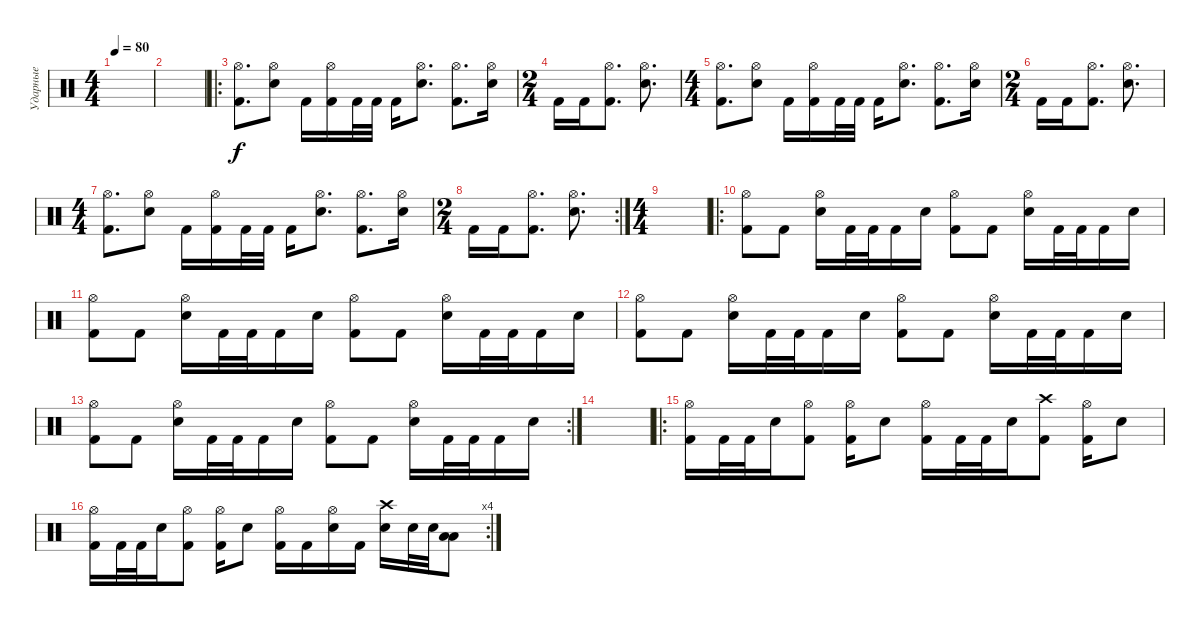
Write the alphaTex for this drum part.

\track ("Ударные" "Ударные") {instrument percussion}
\staff {score}
\articulation defaults
\ts (4 4)
\tempo 80
\clef neutral
\ks c
|
|
\ro
("Hi-Hat (open)" "Kick (hit) 2").8{d} ("Hi-Hat (open)" "Electric Snare (hit)").8 "Kick (hit) 2".16 ("Hi-Hat (open)" "Kick (hit) 2").16 "Kick (hit) 2".32 "Kick (hit) 2".32 "Kick (hit) 2".16 ("Hi-Hat (open)" "Electric Snare (hit)").8{d} ("Hi-Hat (open)" "Kick (hit) 2").8{d} ("Hi-Hat (open)" "Electric Snare (hit)").16 |
\ts (2 4)
"Kick (hit) 2".16 "Kick (hit) 2".16 ("Hi-Hat (open)" "Kick (hit) 2").8{d} ("Hi-Hat (open)" "Electric Snare (hit)").8{d} |
\ts (4 4)
("Hi-Hat (open)" "Kick (hit) 2").8{d} ("Hi-Hat (open)" "Electric Snare (hit)").8 "Kick (hit) 2".16 ("Hi-Hat (open)" "Kick (hit) 2").16 "Kick (hit) 2".32 "Kick (hit) 2".32 "Kick (hit) 2".16 ("Hi-Hat (open)" "Electric Snare (hit)").8{d} ("Hi-Hat (open)" "Kick (hit) 2").8{d} ("Hi-Hat (open)" "Electric Snare (hit)").16 |
\ts (2 4)
"Kick (hit) 2".16 "Kick (hit) 2".16 ("Hi-Hat (open)" "Kick (hit) 2").8{d} ("Hi-Hat (open)" "Electric Snare (hit)").8{d} |
\ts (4 4)
("Hi-Hat (open)" "Kick (hit) 2").8{d} ("Hi-Hat (open)" "Electric Snare (hit)").8 "Kick (hit) 2".16 ("Hi-Hat (open)" "Kick (hit) 2").16 "Kick (hit) 2".32 "Kick (hit) 2".32 "Kick (hit) 2".16 ("Hi-Hat (open)" "Electric Snare (hit)").8{d} ("Hi-Hat (open)" "Kick (hit) 2").8{d} ("Hi-Hat (open)" "Electric Snare (hit)").16 |
\rc 2
\ts (2 4)
"Kick (hit) 2".16 "Kick (hit) 2".16 ("Hi-Hat (open)" "Kick (hit) 2").8{d} ("Hi-Hat (open)" "Electric Snare (hit)").8{d} |
\ts (4 4)
|
\ro
("Hi-Hat (open)" "Kick (hit) 2").8 "Kick (hit) 2".8 ("Hi-Hat (open)" "Electric Snare (hit)").16 "Kick (hit) 2".32 "Kick (hit) 2".32 "Kick (hit) 2".16 "Electric Snare (hit)".16 ("Hi-Hat (open)" "Kick (hit) 2").8 "Kick (hit) 2".8 ("Hi-Hat (open)" "Electric Snare (hit)").16 "Kick (hit) 2".32 "Kick (hit) 2".32 "Kick (hit) 2".16 "Electric Snare (hit)".16 |
("Hi-Hat (open)" "Kick (hit) 2").8 "Kick (hit) 2".8 ("Hi-Hat (open)" "Electric Snare (hit)").16 "Kick (hit) 2".32 "Kick (hit) 2".32 "Kick (hit) 2".16 "Electric Snare (hit)".16 ("Hi-Hat (open)" "Kick (hit) 2").8 "Kick (hit) 2".8 ("Hi-Hat (open)" "Electric Snare (hit)").16 "Kick (hit) 2".32 "Kick (hit) 2".32 "Kick (hit) 2".16 "Electric Snare (hit)".16 |
("Hi-Hat (open)" "Kick (hit) 2").8 "Kick (hit) 2".8 ("Hi-Hat (open)" "Electric Snare (hit)").16 "Kick (hit) 2".32 "Kick (hit) 2".32 "Kick (hit) 2".16 "Electric Snare (hit)".16 ("Hi-Hat (open)" "Kick (hit) 2").8 "Kick (hit) 2".8 ("Hi-Hat (open)" "Electric Snare (hit)").16 "Kick (hit) 2".32 "Kick (hit) 2".32 "Kick (hit) 2".16 "Electric Snare (hit)".16 |
\rc 2
("Hi-Hat (open)" "Kick (hit) 2").8 "Kick (hit) 2".8 ("Hi-Hat (open)" "Electric Snare (hit)").16 "Kick (hit) 2".32 "Kick (hit) 2".32 "Kick (hit) 2".16 "Electric Snare (hit)".16 ("Hi-Hat (open)" "Kick (hit) 2").8 "Kick (hit) 2".8 ("Hi-Hat (open)" "Electric Snare (hit)").16 "Kick (hit) 2".32 "Kick (hit) 2".32 "Kick (hit) 2".16 "Electric Snare (hit)".16 |
|
\ro
("Hi-Hat (open)" "Kick (hit) 2").16 "Kick (hit) 2".32 "Kick (hit) 2".32 "Electric Snare (hit)".16 ("Hi-Hat (open)" "Kick (hit) 2").8 ("Hi-Hat (open)" "Kick (hit) 2").16 "Electric Snare (hit)".8 ("Hi-Hat (open)" "Kick (hit) 2").16 "Kick (hit) 2".32 "Kick (hit) 2".32 "Electric Snare (hit)".16 ("Crash high (hit)" "Kick (hit) 2").8 ("Hi-Hat (open)" "Kick (hit) 2").16 "Electric Snare (hit)".8 |
\rc 4
("Hi-Hat (open)" "Kick (hit) 2").16 "Kick (hit) 2".32 "Kick (hit) 2".32 "Electric Snare (hit)".16 ("Hi-Hat (open)" "Kick (hit) 2").8 ("Hi-Hat (open)" "Kick (hit) 2").16 "Electric Snare (hit)".8 ("Hi-Hat (open)" "Kick (hit) 2").16 "Kick (hit) 2".16 ("Hi-Hat (open)" "Electric Snare (hit)").16 "Kick (hit) 2".16 ("Crash high (hit)" "Electric Snare (hit)").16 "Electric Snare (hit)".32 "Electric Snare (hit)".32 ("Low Floor Tom (hit)" "Low Floor Tom (hit)").8
